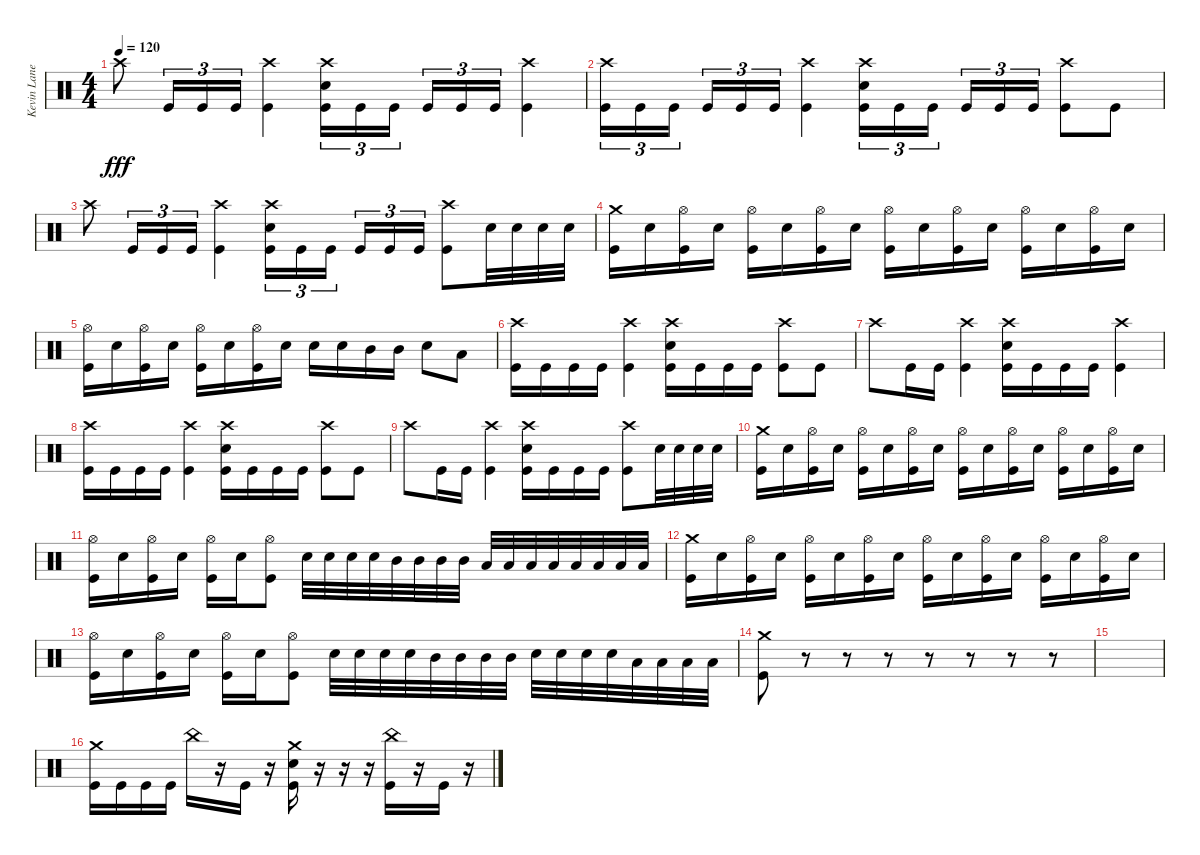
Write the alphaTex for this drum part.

\track ("Kevin Lane" "Kevin Lane") {instrument percussion}
\staff {score}
\articulation defaults
\ts (4 4)
\tempo 120
\clef neutral
\ks c "Crash high (hit)".8{dy fff} "Kick (hit)".16{tu (3 2)} "Kick (hit)".16{tu (3 2)} "Kick (hit)".16{tu (3 2)}
("Crash high (hit)" "Kick (hit)").4 ("Crash high (hit)" "Snare (hit) 2" "Kick (hit)").16{tu (3 2)} "Kick (hit)".16{tu (3 2)} "Kick (hit)".16{tu (3 2) beam splitsecondary} "Kick (hit)".16{tu (3 2)} "Kick (hit)".16{tu (3 2)} "Kick (hit)".16{tu (3 2)} ("Crash high (hit)" "Kick (hit)").4 |
("Crash high (hit)" "Kick (hit)").16{tu (3 2)} "Kick (hit)".16{tu (3 2)} "Kick (hit)".16{tu (3 2) beam splitsecondary} "Kick (hit)".16{tu (3 2)} "Kick (hit)".16{tu (3 2)} "Kick (hit)".16{tu (3 2)} ("Crash high (hit)" "Kick (hit)").4 ("Crash high (hit)" "Snare (hit) 2" "Kick (hit)").16{tu (3 2)} "Kick (hit)".16{tu (3 2)} "Kick (hit)".16{tu (3 2) beam splitsecondary} "Kick (hit)".16{tu (3 2)} "Kick (hit)".16{tu (3 2)} "Kick (hit)".16{tu (3 2)} ("Crash high (hit)" "Kick (hit)").8 "Kick (hit)".8 |
"Crash high (hit)".8 "Kick (hit)".16{tu (3 2)} "Kick (hit)".16{tu (3 2)} "Kick (hit)".16{tu (3 2)} ("Crash high (hit)" "Kick (hit)").4 ("Crash high (hit)" "Snare (hit) 2" "Kick (hit)").16{tu (3 2)} "Kick (hit)".16{tu (3 2)} "Kick (hit)".16{tu (3 2) beam splitsecondary} "Kick (hit)".16{tu (3 2)} "Kick (hit)".16{tu (3 2)} "Kick (hit)".16{tu (3 2)} ("Crash high (hit)" "Kick (hit)").8 "Snare (hit) 2".32 "Snare (hit) 2".32 "Snare (hit) 2".32 "Snare (hit) 2".32 |
("Crash medium (hit)" "Kick (hit)").16 "Snare (hit) 2".16 ("Hi-Hat (open)" "Kick (hit)").16 "Snare (hit) 2".16 ("Hi-Hat (open)" "Kick (hit)").16 "Snare (hit) 2".16 ("Hi-Hat (open)" "Kick (hit)").16 "Snare (hit) 2".16 ("Hi-Hat (open)" "Kick (hit)").16 "Snare (hit) 2".16 ("Hi-Hat (open)" "Kick (hit)").16 "Snare (hit) 2".16 ("Hi-Hat (open)" "Kick (hit)").16 "Snare (hit) 2".16 ("Hi-Hat (open)" "Kick (hit)").16 "Snare (hit) 2".16 |
("Hi-Hat (open)" "Kick (hit)").16 "Snare (hit) 2".16 ("Hi-Hat (open)" "Kick (hit)").16 "Snare (hit) 2".16 ("Hi-Hat (open)" "Kick (hit)").16 "Snare (hit) 2".16 ("Hi-Hat (open)" "Kick (hit)").16 "Snare (hit) 2".16 "Snare (hit) 2".16 "Snare (hit) 2".16 "Mid Tom (hit)".16 "Mid Tom (hit)".16 "Snare (hit) 2".8 "Low Tom (hit)".8 |
("Crash high (hit)" "Kick (hit)").16 "Kick (hit)".16 "Kick (hit)".16 "Kick (hit)".16 ("Crash high (hit)" "Kick (hit)").4 ("Crash high (hit)" "Snare (hit) 2" "Kick (hit)").16 "Kick (hit)".16 "Kick (hit)".16 "Kick (hit)".16 ("Crash high (hit)" "Kick (hit)").8 "Kick (hit)".8 |
"Crash high (hit)".8 "Kick (hit)".16 "Kick (hit)".16 ("Crash high (hit)" "Kick (hit)").4 ("Crash high (hit)" "Snare (hit) 2" "Kick (hit)").16 "Kick (hit)".16 "Kick (hit)".16 "Kick (hit)".16 ("Crash high (hit)" "Kick (hit)").4 |
("Crash high (hit)" "Kick (hit)").16 "Kick (hit)".16 "Kick (hit)".16 "Kick (hit)".16 ("Crash high (hit)" "Kick (hit)").4 ("Crash high (hit)" "Snare (hit) 2" "Kick (hit)").16 "Kick (hit)".16 "Kick (hit)".16 "Kick (hit)".16 ("Crash high (hit)" "Kick (hit)").8 "Kick (hit)".8 |
"Crash high (hit)".8 "Kick (hit)".16 "Kick (hit)".16 ("Crash high (hit)" "Kick (hit)").4 ("Crash high (hit)" "Snare (hit) 2" "Kick (hit)").16 "Kick (hit)".16 "Kick (hit)".16 "Kick (hit)".16 ("Crash high (hit)" "Kick (hit)").8 "Snare (hit) 2".32 "Snare (hit) 2".32 "Snare (hit) 2".32 "Snare (hit) 2".32 |
("Crash medium (hit)" "Kick (hit)").16 "Snare (hit) 2".16 ("Hi-Hat (open)" "Kick (hit)").16 "Snare (hit) 2".16 ("Hi-Hat (open)" "Kick (hit)").16 "Snare (hit) 2".16 ("Hi-Hat (open)" "Kick (hit)").16 "Snare (hit) 2".16 ("Hi-Hat (open)" "Kick (hit)").16 "Snare (hit) 2".16 ("Hi-Hat (open)" "Kick (hit)").16 "Snare (hit) 2".16 ("Hi-Hat (open)" "Kick (hit)").16 "Snare (hit) 2".16 ("Hi-Hat (open)" "Kick (hit)").16 "Snare (hit) 2".16 |
("Hi-Hat (open)" "Kick (hit)").16 "Snare (hit) 2".16 ("Hi-Hat (open)" "Kick (hit)").16 "Snare (hit) 2".16 ("Hi-Hat (open)" "Kick (hit)").16 "Snare (hit) 2".16 ("Hi-Hat (open)" "Kick (hit)").8 "Snare (hit) 2".32 "Snare (hit) 2".32 "Snare (hit) 2".32 "Snare (hit) 2".32 "Mid Tom (hit)".32 "Mid Tom (hit)".32 "Mid Tom (hit)".32 "Mid Tom (hit)".32 "Low Tom (hit)".32 "Low Tom (hit)".32 "Low Tom (hit)".32 "Low Tom (hit)".32 "Low Floor Tom (hit)".32 "Low Floor Tom (hit)".32 "Low Floor Tom (hit)".32 "Low Floor Tom (hit)".32 |
("Crash medium (hit)" "Kick (hit)").16 "Snare (hit) 2".16 ("Hi-Hat (open)" "Kick (hit)").16 "Snare (hit) 2".16 ("Hi-Hat (open)" "Kick (hit)").16 "Snare (hit) 2".16 ("Hi-Hat (open)" "Kick (hit)").16 "Snare (hit) 2".16 ("Hi-Hat (open)" "Kick (hit)").16 "Snare (hit) 2".16 ("Hi-Hat (open)" "Kick (hit)").16 "Snare (hit) 2".16 ("Hi-Hat (open)" "Kick (hit)").16 "Snare (hit) 2".16 ("Hi-Hat (open)" "Kick (hit)").16 "Snare (hit) 2".16 |
("Hi-Hat (open)" "Kick (hit)").16 "Snare (hit) 2".16 ("Hi-Hat (open)" "Kick (hit)").16 "Snare (hit) 2".16 ("Hi-Hat (open)" "Kick (hit)").16 "Snare (hit) 2".16 ("Hi-Hat (open)" "Kick (hit)").8 "Snare (hit) 2".32 "Snare (hit) 2".32 "Snare (hit) 2".32 "Snare (hit) 2".32 "Mid Tom (hit)".32 "Mid Tom (hit)".32 "Mid Tom (hit)".32 "Mid Tom (hit)".32 "Snare (hit) 2".32 "Snare (hit) 2".32 "Snare (hit) 2".32 "Snare (hit) 2".32 "Low Tom (hit)".32 "Low Tom (hit)".32 "Low Tom (hit)".32 "Low Tom (hit)".32 |
("Crash medium (hit)" "Kick (hit)").8{volume 13} r.8{volume 0} r.8 r.8 r.8 r.8 r.8 r.8 |
|
("Crash medium (hit)" "Kick (hit)").16{volume 13} "Kick (hit)".16 "Kick (hit)".16 "Kick (hit)".16 "China (hit)".16 r.16 "Kick (hit)".16 r.16 ("Crash medium (hit)" "Snare (hit) 2" "Kick (hit)").16 r.16 r.16 r.16 ("China (hit)" "Kick (hit)").16 r.16 "Kick (hit)".16 r.16
